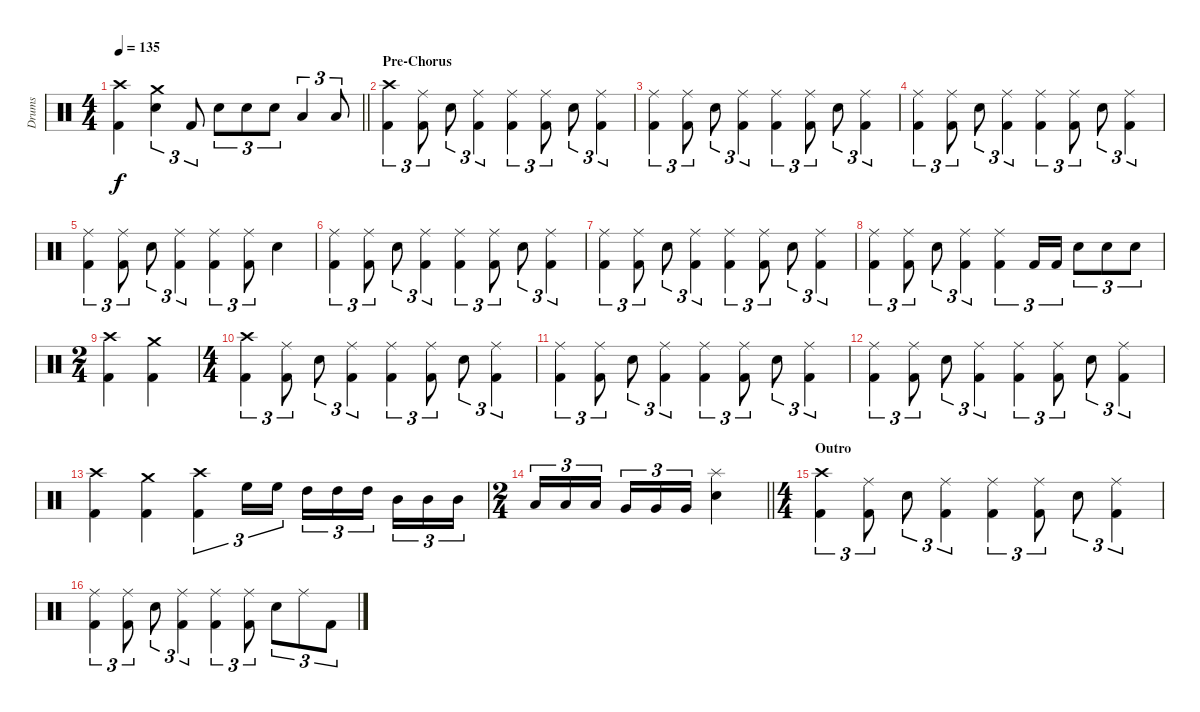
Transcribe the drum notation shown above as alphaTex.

\track ("Drums" "Drums") {instrument percussion}
\staff {score}
\articulation defaults
\ts (4 4)
\tempo 135
\clef neutral
\barLineRight lightlight
\ks c
("Crash high (hit)" "Kick (hit) 2").4{dy f} ("Crash medium (hit)" "Snare (hit) 2").4{tu (3 2)} "Kick (hit) 2".8{tu (3 2)} "Snare (hit) 2".8{tu (3 2)} "Snare (hit) 2".8{tu (3 2)} "Snare (hit) 2".8{tu (3 2)} "Low Tom (hit)".4{tu (3 2)} "Low Tom (hit)".8{tu (3 2)} |
\section ("" "Pre-Chorus")
("Crash high (hit)" "Kick (hit) 2").4{tu (3 2)} ("Ride (middle)" "Kick (hit) 2").8{tu (3 2)} "Snare (hit) 2".8{tu (3 2)} ("Ride (middle)" "Kick (hit) 2").4{tu (3 2)} ("Ride (middle)" "Kick (hit) 2").4{tu (3 2)} ("Ride (middle)" "Kick (hit) 2").8{tu (3 2)} "Snare (hit) 2".8{tu (3 2)} ("Ride (middle)" "Kick (hit) 2").4{tu (3 2)} |
("Ride (middle)" "Kick (hit) 2").4{tu (3 2)} ("Ride (middle)" "Kick (hit) 2").8{tu (3 2)} "Snare (hit) 2".8{tu (3 2)} ("Ride (middle)" "Kick (hit) 2").4{tu (3 2)} ("Ride (middle)" "Kick (hit) 2").4{tu (3 2)} ("Ride (middle)" "Kick (hit) 2").8{tu (3 2)} "Snare (hit) 2".8{tu (3 2)} ("Ride (middle)" "Kick (hit) 2").4{tu (3 2)} |
("Ride (middle)" "Kick (hit) 2").4{tu (3 2)} ("Ride (middle)" "Kick (hit) 2").8{tu (3 2)} "Snare (hit) 2".8{tu (3 2)} ("Ride (middle)" "Kick (hit) 2").4{tu (3 2)} ("Ride (middle)" "Kick (hit) 2").4{tu (3 2)} ("Ride (middle)" "Kick (hit) 2").8{tu (3 2)} "Snare (hit) 2".8{tu (3 2)} ("Ride (middle)" "Kick (hit) 2").4{tu (3 2)} |
("Ride (middle)" "Kick (hit) 2").4{tu (3 2)} ("Ride (middle)" "Kick (hit) 2").8{tu (3 2)} "Snare (hit) 2".8{tu (3 2)} ("Ride (middle)" "Kick (hit) 2").4{tu (3 2)} ("Ride (middle)" "Kick (hit) 2").4{tu (3 2)} ("Ride (middle)" "Kick (hit) 2").8{tu (3 2)} "Snare (hit) 2".4 |
("Ride (middle)" "Kick (hit) 2").4{tu (3 2)} ("Ride (middle)" "Kick (hit) 2").8{tu (3 2)} "Snare (hit) 2".8{tu (3 2)} ("Ride (middle)" "Kick (hit) 2").4{tu (3 2)} ("Ride (middle)" "Kick (hit) 2").4{tu (3 2)} ("Ride (middle)" "Kick (hit) 2").8{tu (3 2)} "Snare (hit) 2".8{tu (3 2)} ("Ride (middle)" "Kick (hit) 2").4{tu (3 2)} |
("Ride (middle)" "Kick (hit) 2").4{tu (3 2)} ("Ride (middle)" "Kick (hit) 2").8{tu (3 2)} "Snare (hit) 2".8{tu (3 2)} ("Ride (middle)" "Kick (hit) 2").4{tu (3 2)} ("Ride (middle)" "Kick (hit) 2").4{tu (3 2)} ("Ride (middle)" "Kick (hit) 2").8{tu (3 2)} "Snare (hit) 2".8{tu (3 2)} ("Ride (middle)" "Kick (hit) 2").4{tu (3 2)} |
("Ride (middle)" "Kick (hit) 2").4{tu (3 2)} ("Ride (middle)" "Kick (hit) 2").8{tu (3 2)} "Snare (hit) 2".8{tu (3 2)} ("Ride (middle)" "Kick (hit) 2").4{tu (3 2)} ("Ride (middle)" "Kick (hit) 2").4{tu (3 2)} "Kick (hit) 2".16{tu (3 2)} "Kick (hit) 2".16{tu (3 2)} "Snare (hit) 2".8{tu (3 2)} "Snare (hit) 2".8{tu (3 2)} "Snare (hit) 2".8{tu (3 2)} |
\ts (2 4)
("Crash high (hit)" "Kick (hit) 2").4 ("Crash medium (hit)" "Kick (hit) 2").4 |
\ts (4 4)
("Crash high (hit)" "Kick (hit) 2").4{tu (3 2)} ("Ride (middle)" "Kick (hit) 2").8{tu (3 2)} "Snare (hit) 2".8{tu (3 2)} ("Ride (middle)" "Kick (hit) 2").4{tu (3 2)} ("Ride (middle)" "Kick (hit) 2").4{tu (3 2)} ("Ride (middle)" "Kick (hit) 2").8{tu (3 2)} "Snare (hit) 2".8{tu (3 2)} ("Ride (middle)" "Kick (hit) 2").4{tu (3 2)} |
("Ride (middle)" "Kick (hit) 2").4{tu (3 2)} ("Ride (middle)" "Kick (hit) 2").8{tu (3 2)} "Snare (hit) 2".8{tu (3 2)} ("Ride (middle)" "Kick (hit) 2").4{tu (3 2)} ("Ride (middle)" "Kick (hit) 2").4{tu (3 2)} ("Ride (middle)" "Kick (hit) 2").8{tu (3 2)} "Snare (hit) 2".8{tu (3 2)} ("Ride (middle)" "Kick (hit) 2").4{tu (3 2)} |
("Ride (middle)" "Kick (hit) 2").4{tu (3 2)} ("Ride (middle)" "Kick (hit) 2").8{tu (3 2)} "Snare (hit) 2".8{tu (3 2)} ("Ride (middle)" "Kick (hit) 2").4{tu (3 2)} ("Ride (middle)" "Kick (hit) 2").4{tu (3 2)} ("Ride (middle)" "Kick (hit) 2").8{tu (3 2)} "Snare (hit) 2".8{tu (3 2)} ("Ride (middle)" "Kick (hit) 2").4{tu (3 2)} |
("Crash high (hit)" "Kick (hit) 2").4 ("Crash medium (hit)" "Kick (hit) 2").4 ("Crash high (hit)" "Kick (hit) 2").4{tu (3 2)} "High Floor Tom (hit)".16{tu (3 2)} "High Floor Tom (hit)".16{tu (3 2)} "High Tom (hit)".16{tu (3 2)} "High Tom (hit)".16{tu (3 2)} "High Tom (hit)".16{tu (3 2) beam splitsecondary} "Mid Tom (hit)".16{tu (3 2)} "Mid Tom (hit)".16{tu (3 2)} "Mid Tom (hit)".16{tu (3 2)} |
\ts (2 4)
\barLineRight lightlight "Low Tom (hit)".16{tu (3 2)} "Low Tom (hit)".16{tu (3 2)} "Low Tom (hit)".16{tu (3 2) beam splitsecondary} "Very Low Tom (hit)".16{tu (3 2)} "Very Low Tom (hit)".16{tu (3 2)} "Very Low Tom (hit)".16{tu (3 2)}
("Splash (hit)" "Snare (hit) 2").4 |
\ts (4 4)
\section ("" "Outro")
("Crash high (hit)" "Kick (hit) 2").4{tu (3 2)} ("Ride (middle)" "Kick (hit) 2").8{tu (3 2)} "Snare (hit) 2".8{tu (3 2)} ("Ride (middle)" "Kick (hit) 2").4{tu (3 2)} ("Ride (middle)" "Kick (hit) 2").4{tu (3 2)} ("Ride (middle)" "Kick (hit) 2").8{tu (3 2)} "Snare (hit) 2".8{tu (3 2)} ("Ride (middle)" "Kick (hit) 2").4{tu (3 2)} |
("Ride (middle)" "Kick (hit) 2").4{tu (3 2)} ("Ride (middle)" "Kick (hit) 2").8{tu (3 2)} "Snare (hit) 2".8{tu (3 2)} ("Ride (middle)" "Kick (hit) 2").4{tu (3 2)} ("Ride (middle)" "Kick (hit) 2").4{tu (3 2)} ("Ride (middle)" "Kick (hit) 2").8{tu (3 2)} "Snare (hit) 2".8{tu (3 2)} "Ride (middle)".8{tu (3 2)} "Kick (hit) 2".8{tu (3 2)}
